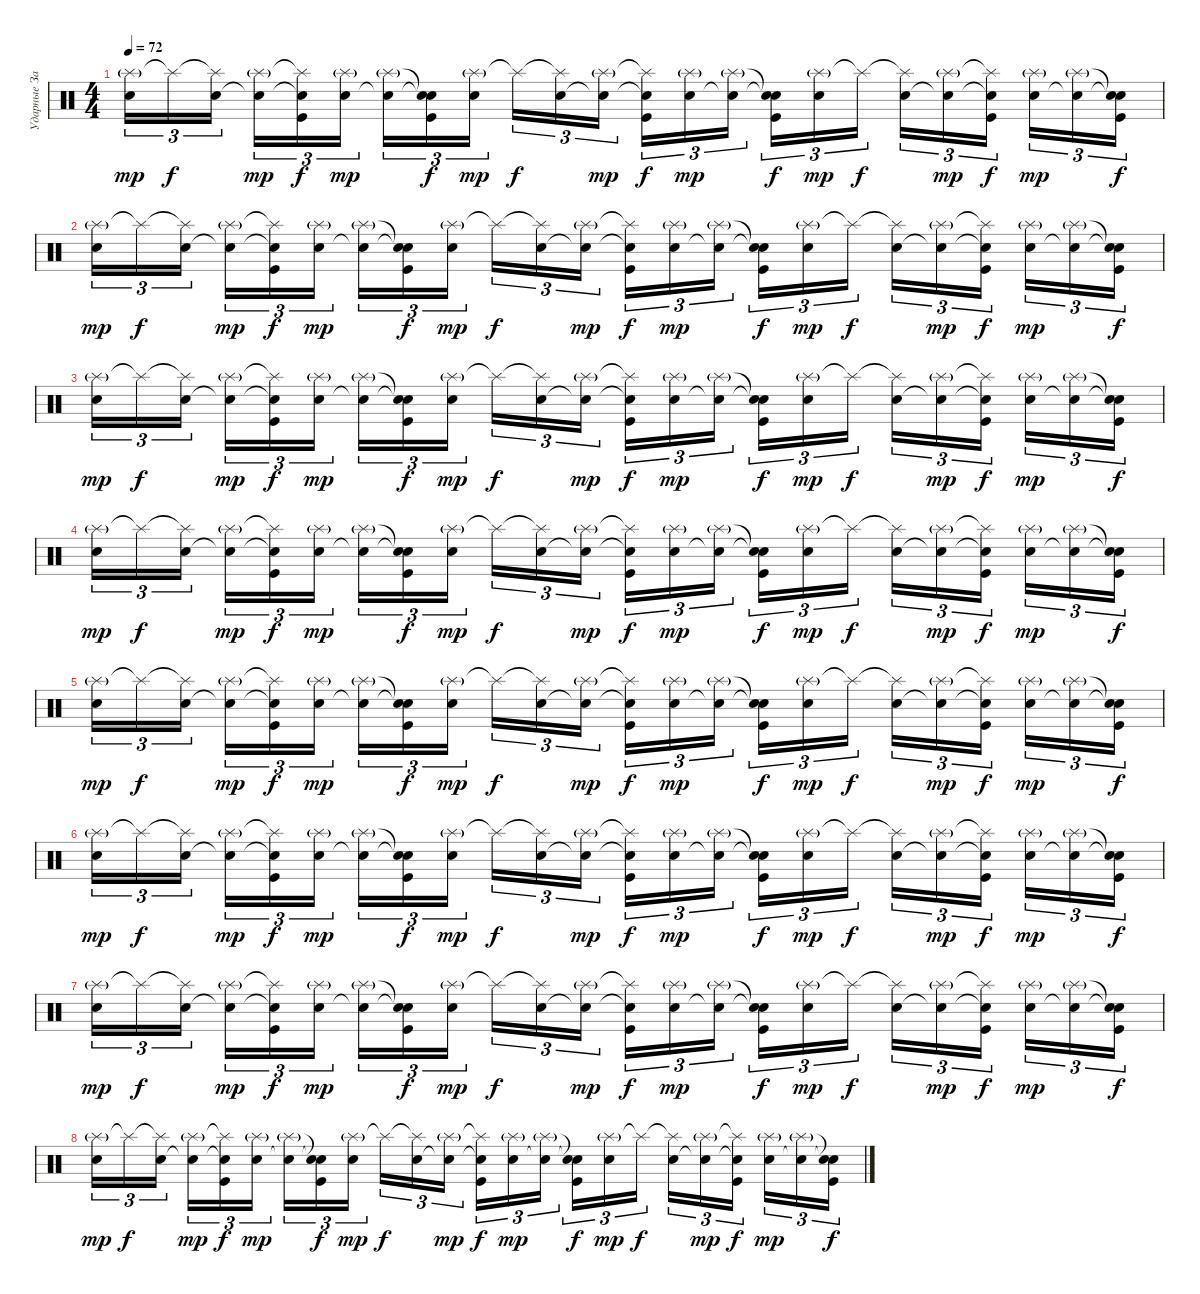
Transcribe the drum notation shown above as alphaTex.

\track ("Ударные Запарили(" "Ударные За") {instrument percussion}
\staff {score}
\articulation defaults
\ts (4 4)
\tempo 72
\clef neutral
\ks c
("Splash (hit)"{g} "Snare (hit) 2").16{tu (3 2) dy mp} "Splash (hit)"{t}.16{tu (3 2) dy f} ("Splash (hit)"{t} "Snare (hit) 2").16{tu (3 2) beam splitsecondary} ("Splash (hit)"{g} "Snare (hit) 2"{t}).16{tu (3 2) dy mp} ("Splash (hit)"{t} "Snare (hit) 2"{t} "Kick (hit)").16{tu (3 2) dy f} ("Splash (hit)"{g} "Snare (hit) 2").16{tu (3 2) dy mp} ("Splash (hit)"{g} "Snare (hit) 2"{t}).16{tu (3 2)} ("Snare (hit)"{t} "Snare (hit) 2"{t} "Kick (hit)").16{tu (3 2) dy f} ("Splash (hit)"{g} "Snare (hit) 2").16{tu (3 2) dy mp beam splitsecondary} "Splash (hit)"{t}.16{tu (3 2) dy f} ("Splash (hit)"{t} "Snare (hit) 2").16{tu (3 2)} ("Splash (hit)"{g} "Snare (hit) 2"{t}).16{tu (3 2) dy mp} ("Splash (hit)"{t} "Snare (hit) 2"{t} "Kick (hit)").16{tu (3 2) dy f} ("Splash (hit)"{g} "Snare (hit) 2").16{tu (3 2) dy mp} ("Splash (hit)"{g} "Snare (hit) 2"{t}).16{tu (3 2) beam splitsecondary} ("Snare (hit)"{t} "Snare (hit) 2"{t} "Kick (hit)").16{tu (3 2) dy f} ("Splash (hit)"{g} "Snare (hit) 2").16{tu (3 2) dy mp} "Splash (hit)"{t}.16{tu (3 2) dy f} ("Splash (hit)"{t} "Snare (hit) 2").16{tu (3 2)} ("Splash (hit)"{g} "Snare (hit) 2"{t}).16{tu (3 2) dy mp} ("Splash (hit)"{t} "Snare (hit) 2"{t} "Kick (hit)").16{tu (3 2) dy f beam splitsecondary} ("Splash (hit)"{g} "Snare (hit) 2").16{tu (3 2) dy mp} ("Splash (hit)"{g} "Snare (hit) 2"{t}).16{tu (3 2)} ("Snare (hit)"{t} "Snare (hit) 2"{t} "Kick (hit)").16{tu (3 2) dy f} |
("Splash (hit)"{g} "Snare (hit) 2").16{tu (3 2) dy mp} "Splash (hit)"{t}.16{tu (3 2) dy f} ("Splash (hit)"{t} "Snare (hit) 2").16{tu (3 2) beam splitsecondary} ("Splash (hit)"{g} "Snare (hit) 2"{t}).16{tu (3 2) dy mp} ("Splash (hit)"{t} "Snare (hit) 2"{t} "Kick (hit)").16{tu (3 2) dy f} ("Splash (hit)"{g} "Snare (hit) 2").16{tu (3 2) dy mp} ("Splash (hit)"{g} "Snare (hit) 2"{t}).16{tu (3 2)} ("Snare (hit)"{t} "Snare (hit) 2"{t} "Kick (hit)").16{tu (3 2) dy f} ("Splash (hit)"{g} "Snare (hit) 2").16{tu (3 2) dy mp beam splitsecondary} "Splash (hit)"{t}.16{tu (3 2) dy f} ("Splash (hit)"{t} "Snare (hit) 2").16{tu (3 2)} ("Splash (hit)"{g} "Snare (hit) 2"{t}).16{tu (3 2) dy mp} ("Splash (hit)"{t} "Snare (hit) 2"{t} "Kick (hit)").16{tu (3 2) dy f} ("Splash (hit)"{g} "Snare (hit) 2").16{tu (3 2) dy mp} ("Splash (hit)"{g} "Snare (hit) 2"{t}).16{tu (3 2) beam splitsecondary} ("Snare (hit)"{t} "Snare (hit) 2"{t} "Kick (hit)").16{tu (3 2) dy f} ("Splash (hit)"{g} "Snare (hit) 2").16{tu (3 2) dy mp} "Splash (hit)"{t}.16{tu (3 2) dy f} ("Splash (hit)"{t} "Snare (hit) 2").16{tu (3 2)} ("Splash (hit)"{g} "Snare (hit) 2"{t}).16{tu (3 2) dy mp} ("Splash (hit)"{t} "Snare (hit) 2"{t} "Kick (hit)").16{tu (3 2) dy f beam splitsecondary} ("Splash (hit)"{g} "Snare (hit) 2").16{tu (3 2) dy mp} ("Splash (hit)"{g} "Snare (hit) 2"{t}).16{tu (3 2)} ("Snare (hit)"{t} "Snare (hit) 2"{t} "Kick (hit)").16{tu (3 2) dy f} |
("Splash (hit)"{g} "Snare (hit) 2").16{tu (3 2) dy mp} "Splash (hit)"{t}.16{tu (3 2) dy f} ("Splash (hit)"{t} "Snare (hit) 2").16{tu (3 2) beam splitsecondary} ("Splash (hit)"{g} "Snare (hit) 2"{t}).16{tu (3 2) dy mp} ("Splash (hit)"{t} "Snare (hit) 2"{t} "Kick (hit)").16{tu (3 2) dy f} ("Splash (hit)"{g} "Snare (hit) 2").16{tu (3 2) dy mp} ("Splash (hit)"{g} "Snare (hit) 2"{t}).16{tu (3 2)} ("Snare (hit)"{t} "Snare (hit) 2"{t} "Kick (hit)").16{tu (3 2) dy f} ("Splash (hit)"{g} "Snare (hit) 2").16{tu (3 2) dy mp beam splitsecondary} "Splash (hit)"{t}.16{tu (3 2) dy f} ("Splash (hit)"{t} "Snare (hit) 2").16{tu (3 2)} ("Splash (hit)"{g} "Snare (hit) 2"{t}).16{tu (3 2) dy mp} ("Splash (hit)"{t} "Snare (hit) 2"{t} "Kick (hit)").16{tu (3 2) dy f} ("Splash (hit)"{g} "Snare (hit) 2").16{tu (3 2) dy mp} ("Splash (hit)"{g} "Snare (hit) 2"{t}).16{tu (3 2) beam splitsecondary} ("Snare (hit)"{t} "Snare (hit) 2"{t} "Kick (hit)").16{tu (3 2) dy f} ("Splash (hit)"{g} "Snare (hit) 2").16{tu (3 2) dy mp} "Splash (hit)"{t}.16{tu (3 2) dy f} ("Splash (hit)"{t} "Snare (hit) 2").16{tu (3 2)} ("Splash (hit)"{g} "Snare (hit) 2"{t}).16{tu (3 2) dy mp} ("Splash (hit)"{t} "Snare (hit) 2"{t} "Kick (hit)").16{tu (3 2) dy f beam splitsecondary} ("Splash (hit)"{g} "Snare (hit) 2").16{tu (3 2) dy mp} ("Splash (hit)"{g} "Snare (hit) 2"{t}).16{tu (3 2)} ("Snare (hit)"{t} "Snare (hit) 2"{t} "Kick (hit)").16{tu (3 2) dy f} |
("Splash (hit)"{g} "Snare (hit) 2").16{tu (3 2) dy mp} "Splash (hit)"{t}.16{tu (3 2) dy f} ("Splash (hit)"{t} "Snare (hit) 2").16{tu (3 2) beam splitsecondary} ("Splash (hit)"{g} "Snare (hit) 2"{t}).16{tu (3 2) dy mp} ("Splash (hit)"{t} "Snare (hit) 2"{t} "Kick (hit)").16{tu (3 2) dy f} ("Splash (hit)"{g} "Snare (hit) 2").16{tu (3 2) dy mp} ("Splash (hit)"{g} "Snare (hit) 2"{t}).16{tu (3 2)} ("Snare (hit)"{t} "Snare (hit) 2"{t} "Kick (hit)").16{tu (3 2) dy f} ("Splash (hit)"{g} "Snare (hit) 2").16{tu (3 2) dy mp beam splitsecondary} "Splash (hit)"{t}.16{tu (3 2) dy f} ("Splash (hit)"{t} "Snare (hit) 2").16{tu (3 2)} ("Splash (hit)"{g} "Snare (hit) 2"{t}).16{tu (3 2) dy mp} ("Splash (hit)"{t} "Snare (hit) 2"{t} "Kick (hit)").16{tu (3 2) dy f} ("Splash (hit)"{g} "Snare (hit) 2").16{tu (3 2) dy mp} ("Splash (hit)"{g} "Snare (hit) 2"{t}).16{tu (3 2) beam splitsecondary} ("Snare (hit)"{t} "Snare (hit) 2"{t} "Kick (hit)").16{tu (3 2) dy f} ("Splash (hit)"{g} "Snare (hit) 2").16{tu (3 2) dy mp} "Splash (hit)"{t}.16{tu (3 2) dy f} ("Splash (hit)"{t} "Snare (hit) 2").16{tu (3 2)} ("Splash (hit)"{g} "Snare (hit) 2"{t}).16{tu (3 2) dy mp} ("Splash (hit)"{t} "Snare (hit) 2"{t} "Kick (hit)").16{tu (3 2) dy f beam splitsecondary} ("Splash (hit)"{g} "Snare (hit) 2").16{tu (3 2) dy mp} ("Splash (hit)"{g} "Snare (hit) 2"{t}).16{tu (3 2)} ("Snare (hit)"{t} "Snare (hit) 2"{t} "Kick (hit)").16{tu (3 2) dy f} |
("Splash (hit)"{g} "Snare (hit) 2").16{tu (3 2) dy mp} "Splash (hit)"{t}.16{tu (3 2) dy f} ("Splash (hit)"{t} "Snare (hit) 2").16{tu (3 2) beam splitsecondary} ("Splash (hit)"{g} "Snare (hit) 2"{t}).16{tu (3 2) dy mp} ("Splash (hit)"{t} "Snare (hit) 2"{t} "Kick (hit)").16{tu (3 2) dy f} ("Splash (hit)"{g} "Snare (hit) 2").16{tu (3 2) dy mp} ("Splash (hit)"{g} "Snare (hit) 2"{t}).16{tu (3 2)} ("Snare (hit)"{t} "Snare (hit) 2"{t} "Kick (hit)").16{tu (3 2) dy f} ("Splash (hit)"{g} "Snare (hit) 2").16{tu (3 2) dy mp beam splitsecondary} "Splash (hit)"{t}.16{tu (3 2) dy f} ("Splash (hit)"{t} "Snare (hit) 2").16{tu (3 2)} ("Splash (hit)"{g} "Snare (hit) 2"{t}).16{tu (3 2) dy mp} ("Splash (hit)"{t} "Snare (hit) 2"{t} "Kick (hit)").16{tu (3 2) dy f} ("Splash (hit)"{g} "Snare (hit) 2").16{tu (3 2) dy mp} ("Splash (hit)"{g} "Snare (hit) 2"{t}).16{tu (3 2) beam splitsecondary} ("Snare (hit)"{t} "Snare (hit) 2"{t} "Kick (hit)").16{tu (3 2) dy f} ("Splash (hit)"{g} "Snare (hit) 2").16{tu (3 2) dy mp} "Splash (hit)"{t}.16{tu (3 2) dy f} ("Splash (hit)"{t} "Snare (hit) 2").16{tu (3 2)} ("Splash (hit)"{g} "Snare (hit) 2"{t}).16{tu (3 2) dy mp} ("Splash (hit)"{t} "Snare (hit) 2"{t} "Kick (hit)").16{tu (3 2) dy f beam splitsecondary} ("Splash (hit)"{g} "Snare (hit) 2").16{tu (3 2) dy mp} ("Splash (hit)"{g} "Snare (hit) 2"{t}).16{tu (3 2)} ("Snare (hit)"{t} "Snare (hit) 2"{t} "Kick (hit)").16{tu (3 2) dy f} |
("Splash (hit)"{g} "Snare (hit) 2").16{tu (3 2) dy mp} "Splash (hit)"{t}.16{tu (3 2) dy f} ("Splash (hit)"{t} "Snare (hit) 2").16{tu (3 2) beam splitsecondary} ("Splash (hit)"{g} "Snare (hit) 2"{t}).16{tu (3 2) dy mp} ("Splash (hit)"{t} "Snare (hit) 2"{t} "Kick (hit)").16{tu (3 2) dy f} ("Splash (hit)"{g} "Snare (hit) 2").16{tu (3 2) dy mp} ("Splash (hit)"{g} "Snare (hit) 2"{t}).16{tu (3 2)} ("Snare (hit)"{t} "Snare (hit) 2"{t} "Kick (hit)").16{tu (3 2) dy f} ("Splash (hit)"{g} "Snare (hit) 2").16{tu (3 2) dy mp beam splitsecondary} "Splash (hit)"{t}.16{tu (3 2) dy f} ("Splash (hit)"{t} "Snare (hit) 2").16{tu (3 2)} ("Splash (hit)"{g} "Snare (hit) 2"{t}).16{tu (3 2) dy mp} ("Splash (hit)"{t} "Snare (hit) 2"{t} "Kick (hit)").16{tu (3 2) dy f} ("Splash (hit)"{g} "Snare (hit) 2").16{tu (3 2) dy mp} ("Splash (hit)"{g} "Snare (hit) 2"{t}).16{tu (3 2) beam splitsecondary} ("Snare (hit)"{t} "Snare (hit) 2"{t} "Kick (hit)").16{tu (3 2) dy f} ("Splash (hit)"{g} "Snare (hit) 2").16{tu (3 2) dy mp} "Splash (hit)"{t}.16{tu (3 2) dy f} ("Splash (hit)"{t} "Snare (hit) 2").16{tu (3 2)} ("Splash (hit)"{g} "Snare (hit) 2"{t}).16{tu (3 2) dy mp} ("Splash (hit)"{t} "Snare (hit) 2"{t} "Kick (hit)").16{tu (3 2) dy f beam splitsecondary} ("Splash (hit)"{g} "Snare (hit) 2").16{tu (3 2) dy mp} ("Splash (hit)"{g} "Snare (hit) 2"{t}).16{tu (3 2)} ("Snare (hit)"{t} "Snare (hit) 2"{t} "Kick (hit)").16{tu (3 2) dy f} |
("Splash (hit)"{g} "Snare (hit) 2").16{tu (3 2) dy mp} "Splash (hit)"{t}.16{tu (3 2) dy f} ("Splash (hit)"{t} "Snare (hit) 2").16{tu (3 2) beam splitsecondary} ("Splash (hit)"{g} "Snare (hit) 2"{t}).16{tu (3 2) dy mp} ("Splash (hit)"{t} "Snare (hit) 2"{t} "Kick (hit)").16{tu (3 2) dy f} ("Splash (hit)"{g} "Snare (hit) 2").16{tu (3 2) dy mp} ("Splash (hit)"{g} "Snare (hit) 2"{t}).16{tu (3 2)} ("Snare (hit)"{t} "Snare (hit) 2"{t} "Kick (hit)").16{tu (3 2) dy f} ("Splash (hit)"{g} "Snare (hit) 2").16{tu (3 2) dy mp beam splitsecondary} "Splash (hit)"{t}.16{tu (3 2) dy f} ("Splash (hit)"{t} "Snare (hit) 2").16{tu (3 2)} ("Splash (hit)"{g} "Snare (hit) 2"{t}).16{tu (3 2) dy mp} ("Splash (hit)"{t} "Snare (hit) 2"{t} "Kick (hit)").16{tu (3 2) dy f} ("Splash (hit)"{g} "Snare (hit) 2").16{tu (3 2) dy mp} ("Splash (hit)"{g} "Snare (hit) 2"{t}).16{tu (3 2) beam splitsecondary} ("Snare (hit)"{t} "Snare (hit) 2"{t} "Kick (hit)").16{tu (3 2) dy f} ("Splash (hit)"{g} "Snare (hit) 2").16{tu (3 2) dy mp} "Splash (hit)"{t}.16{tu (3 2) dy f} ("Splash (hit)"{t} "Snare (hit) 2").16{tu (3 2)} ("Splash (hit)"{g} "Snare (hit) 2"{t}).16{tu (3 2) dy mp} ("Splash (hit)"{t} "Snare (hit) 2"{t} "Kick (hit)").16{tu (3 2) dy f beam splitsecondary} ("Splash (hit)"{g} "Snare (hit) 2").16{tu (3 2) dy mp} ("Splash (hit)"{g} "Snare (hit) 2"{t}).16{tu (3 2)} ("Snare (hit)"{t} "Snare (hit) 2"{t} "Kick (hit)").16{tu (3 2) dy f} |
("Splash (hit)"{g} "Snare (hit) 2").16{tu (3 2) dy mp} "Splash (hit)"{t}.16{tu (3 2) dy f} ("Splash (hit)"{t} "Snare (hit) 2").16{tu (3 2) beam splitsecondary} ("Splash (hit)"{g} "Snare (hit) 2"{t}).16{tu (3 2) dy mp} ("Splash (hit)"{t} "Snare (hit) 2"{t} "Kick (hit)").16{tu (3 2) dy f} ("Splash (hit)"{g} "Snare (hit) 2").16{tu (3 2) dy mp} ("Splash (hit)"{g} "Snare (hit) 2"{t}).16{tu (3 2)} ("Snare (hit)"{t} "Snare (hit) 2"{t} "Kick (hit)").16{tu (3 2) dy f} ("Splash (hit)"{g} "Snare (hit) 2").16{tu (3 2) dy mp beam splitsecondary} "Splash (hit)"{t}.16{tu (3 2) dy f} ("Splash (hit)"{t} "Snare (hit) 2").16{tu (3 2)} ("Splash (hit)"{g} "Snare (hit) 2"{t}).16{tu (3 2) dy mp} ("Splash (hit)"{t} "Snare (hit) 2"{t} "Kick (hit)").16{tu (3 2) dy f} ("Splash (hit)"{g} "Snare (hit) 2").16{tu (3 2) dy mp} ("Splash (hit)"{g} "Snare (hit) 2"{t}).16{tu (3 2) beam splitsecondary} ("Snare (hit)"{t} "Snare (hit) 2"{t} "Kick (hit)").16{tu (3 2) dy f} ("Splash (hit)"{g} "Snare (hit) 2").16{tu (3 2) dy mp} "Splash (hit)"{t}.16{tu (3 2) dy f} ("Splash (hit)"{t} "Snare (hit) 2").16{tu (3 2)} ("Splash (hit)"{g} "Snare (hit) 2"{t}).16{tu (3 2) dy mp} ("Splash (hit)"{t} "Snare (hit) 2"{t} "Kick (hit)").16{tu (3 2) dy f beam splitsecondary} ("Splash (hit)"{g} "Snare (hit) 2").16{tu (3 2) dy mp} ("Splash (hit)"{g} "Snare (hit) 2"{t}).16{tu (3 2)} ("Snare (hit)"{t} "Snare (hit) 2"{t} "Kick (hit)").16{tu (3 2) dy f}
